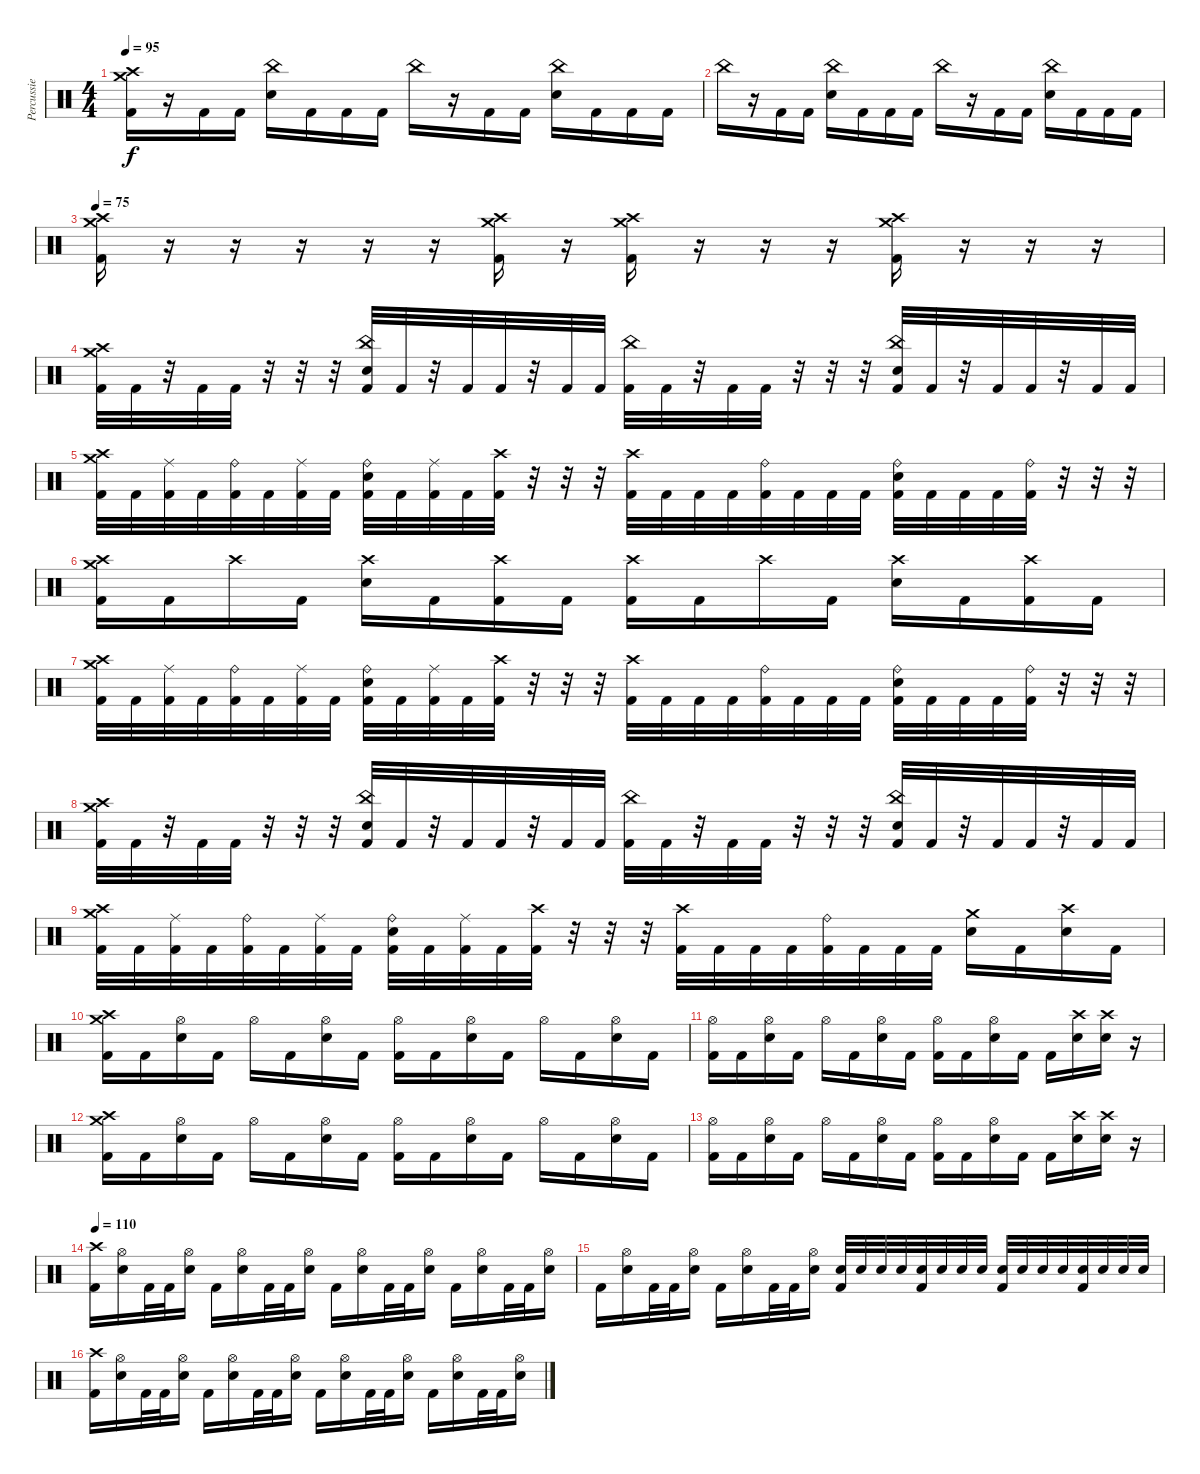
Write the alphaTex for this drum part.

\track ("Percussie" "Percussie") {instrument percussion}
\staff {score}
\articulation defaults
\ts (4 4)
\tempo 95
\clef neutral
\ks c
("Crash medium (hit)" "Crash high (hit)" "Kick (hit) 2").16{dy f} r.16 "Kick (hit) 2".16 "Kick (hit) 2".16 ("China (hit)" "Electric Snare (hit)").16 "Kick (hit) 2".16 "Kick (hit) 2".16 "Kick (hit) 2".16 "China (hit)".16 r.16 "Kick (hit) 2".16 "Kick (hit) 2".16 ("China (hit)" "Electric Snare (hit)").16 "Kick (hit) 2".16 "Kick (hit) 2".16 "Kick (hit) 2".16 |
"China (hit)".16 r.16 "Kick (hit) 2".16 "Kick (hit) 2".16 ("China (hit)" "Electric Snare (hit)").16 "Kick (hit) 2".16 "Kick (hit) 2".16 "Kick (hit) 2".16 "China (hit)".16 r.16 "Kick (hit) 2".16 "Kick (hit) 2".16 ("China (hit)" "Electric Snare (hit)").16 "Kick (hit) 2".16 "Kick (hit) 2".16 "Kick (hit) 2".16 |
\tempo 75
("Crash medium (hit)" "Crash high (hit)" "Kick (hit) 2").16 r.16{volume 0} r.16 r.16 r.16 r.16 ("Crash high (hit)" "Crash medium (hit)" "Kick (hit) 2").16{volume 13} r.16 ("Crash medium (hit)" "Crash high (hit)" "Kick (hit) 2").16 r.16{volume 0} r.16 r.16 ("Crash medium (hit)" "Crash high (hit)" "Kick (hit) 2").16{volume 13} r.16{volume 0} r.16 r.16 |
("Crash medium (hit)" "Crash high (hit)" "Kick (hit) 2").32{volume 13} "Kick (hit) 2".32 r.32 "Kick (hit) 2".32 "Kick (hit) 2".32 r.32 r.32 r.32 ("China (hit)" "Electric Snare (hit)" "Kick (hit) 2").32 "Kick (hit) 2".32 r.32 "Kick (hit) 2".32 "Kick (hit) 2".32 r.32 "Kick (hit) 2".32 "Kick (hit) 2".32 ("China (hit)" "Kick (hit) 2").32 "Kick (hit) 2".32 r.32 "Kick (hit) 2".32 "Kick (hit) 2".32 r.32 r.32 r.32 ("China (hit)" "Electric Snare (hit)" "Kick (hit) 2").32 "Kick (hit) 2".32 r.32 "Kick (hit) 2".32 "Kick (hit) 2".32 r.32 "Kick (hit) 2".32 "Kick (hit) 2".32 |
("Crash medium (hit)" "Crash high (hit)" "Kick (hit) 2").32 "Kick (hit) 2".32 ("Ride (middle)" "Kick (hit) 2").32 "Kick (hit) 2".32 ("Ride (bell)" "Kick (hit) 2").32 "Kick (hit) 2".32 ("Ride (middle)" "Kick (hit) 2").32 "Kick (hit) 2".32 ("Ride (bell)" "Electric Snare (hit)" "Kick (hit) 2").32 "Kick (hit) 2".32 ("Ride (middle)" "Kick (hit) 2").32 "Kick (hit) 2".32 ("Crash high (hit)" "Kick (hit) 2").32 r.32 r.32 r.32 ("Crash high (hit)" "Kick (hit) 2").32 "Kick (hit) 2".32 "Kick (hit) 2".32 "Kick (hit) 2".32 ("Ride (bell)" "Kick (hit) 2").32 "Kick (hit) 2".32 "Kick (hit) 2".32 "Kick (hit) 2".32 ("Ride (bell)" "Electric Snare (hit)" "Kick (hit) 2").32 "Kick (hit) 2".32 "Kick (hit) 2".32 "Kick (hit) 2".32 ("Ride (bell)" "Kick (hit) 2").32 r.32 r.32 r.32 |
("Crash medium (hit)" "Crash high (hit)" "Kick (hit) 2").16 "Kick (hit) 2".16 "Crash high (hit)".16 "Kick (hit) 2".16 ("Crash high (hit)" "Electric Snare (hit)").16 "Kick (hit) 2".16 ("Crash high (hit)" "Kick (hit) 2").16 "Kick (hit) 2".16 ("Crash high (hit)" "Kick (hit) 2").16 "Kick (hit) 2".16 "Crash high (hit)".16 "Kick (hit) 2".16 ("Crash high (hit)" "Electric Snare (hit)").16 "Kick (hit) 2".16 ("Crash high (hit)" "Kick (hit) 2").16 "Kick (hit) 2".16 |
("Crash medium (hit)" "Crash high (hit)" "Kick (hit) 2").32 "Kick (hit) 2".32 ("Ride (middle)" "Kick (hit) 2").32 "Kick (hit) 2".32 ("Ride (bell)" "Kick (hit) 2").32 "Kick (hit) 2".32 ("Ride (middle)" "Kick (hit) 2").32 "Kick (hit) 2".32 ("Ride (bell)" "Electric Snare (hit)" "Kick (hit) 2").32 "Kick (hit) 2".32 ("Ride (middle)" "Kick (hit) 2").32 "Kick (hit) 2".32 ("Crash high (hit)" "Kick (hit) 2").32 r.32 r.32 r.32 ("Crash high (hit)" "Kick (hit) 2").32 "Kick (hit) 2".32 "Kick (hit) 2".32 "Kick (hit) 2".32 ("Ride (bell)" "Kick (hit) 2").32 "Kick (hit) 2".32 "Kick (hit) 2".32 "Kick (hit) 2".32 ("Ride (bell)" "Electric Snare (hit)" "Kick (hit) 2").32 "Kick (hit) 2".32 "Kick (hit) 2".32 "Kick (hit) 2".32 ("Ride (bell)" "Kick (hit) 2").32 r.32 r.32 r.32 |
("Crash medium (hit)" "Crash high (hit)" "Kick (hit) 2").32{volume 13} "Kick (hit) 2".32 r.32 "Kick (hit) 2".32 "Kick (hit) 2".32 r.32 r.32 r.32 ("China (hit)" "Electric Snare (hit)" "Kick (hit) 2").32 "Kick (hit) 2".32 r.32 "Kick (hit) 2".32 "Kick (hit) 2".32 r.32 "Kick (hit) 2".32 "Kick (hit) 2".32 ("China (hit)" "Kick (hit) 2").32 "Kick (hit) 2".32 r.32 "Kick (hit) 2".32 "Kick (hit) 2".32 r.32 r.32 r.32 ("China (hit)" "Electric Snare (hit)" "Kick (hit) 2").32 "Kick (hit) 2".32 r.32 "Kick (hit) 2".32 "Kick (hit) 2".32 r.32 "Kick (hit) 2".32 "Kick (hit) 2".32 |
("Crash medium (hit)" "Crash high (hit)" "Kick (hit) 2").32 "Kick (hit) 2".32 ("Ride (middle)" "Kick (hit) 2").32 "Kick (hit) 2".32 ("Ride (bell)" "Kick (hit) 2").32 "Kick (hit) 2".32 ("Ride (middle)" "Kick (hit) 2").32 "Kick (hit) 2".32 ("Ride (bell)" "Electric Snare (hit)" "Kick (hit) 2").32 "Kick (hit) 2".32 ("Ride (middle)" "Kick (hit) 2").32 "Kick (hit) 2".32 ("Crash high (hit)" "Kick (hit) 2").32 r.32 r.32 r.32 ("Crash high (hit)" "Kick (hit) 2").32 "Kick (hit) 2".32 "Kick (hit) 2".32 "Kick (hit) 2".32 ("Ride (bell)" "Kick (hit) 2").32 "Kick (hit) 2".32 "Kick (hit) 2".32 "Kick (hit) 2".32 ("Crash medium (hit)" "Electric Snare (hit)").16 "Kick (hit) 2".16 ("Crash high (hit)" "Electric Snare (hit)").16 "Kick (hit) 2".16 |
("Crash medium (hit)" "Crash high (hit)" "Kick (hit) 2").16 "Kick (hit) 2".16 ("Hi-Hat (open)" "Electric Snare (hit)").16 "Kick (hit) 2".16 "Hi-Hat (open)".16 "Kick (hit) 2".16 ("Hi-Hat (open)" "Electric Snare (hit)").16 "Kick (hit) 2".16 ("Hi-Hat (open)" "Kick (hit) 2").16 "Kick (hit) 2".16 ("Hi-Hat (open)" "Electric Snare (hit)").16 "Kick (hit) 2".16 "Hi-Hat (open)".16 "Kick (hit) 2".16 ("Hi-Hat (open)" "Electric Snare (hit)").16 "Kick (hit) 2".16 |
("Hi-Hat (open)" "Kick (hit) 2").16 "Kick (hit) 2".16 ("Hi-Hat (open)" "Electric Snare (hit)").16 "Kick (hit) 2".16 "Hi-Hat (open)".16 "Kick (hit) 2".16 ("Hi-Hat (open)" "Electric Snare (hit)").16 "Kick (hit) 2".16 ("Hi-Hat (open)" "Kick (hit) 2").16 "Kick (hit) 2".16 ("Hi-Hat (open)" "Electric Snare (hit)").16 "Kick (hit) 2".16 "Kick (hit) 2".16 ("Crash high (hit)" "Electric Snare (hit)").16 ("Crash high (hit)" "Electric Snare (hit)").16 r.16 |
("Crash medium (hit)" "Crash high (hit)" "Kick (hit) 2").16 "Kick (hit) 2".16 ("Hi-Hat (open)" "Electric Snare (hit)").16 "Kick (hit) 2".16 "Hi-Hat (open)".16 "Kick (hit) 2".16 ("Hi-Hat (open)" "Electric Snare (hit)").16 "Kick (hit) 2".16 ("Hi-Hat (open)" "Kick (hit) 2").16 "Kick (hit) 2".16 ("Hi-Hat (open)" "Electric Snare (hit)").16 "Kick (hit) 2".16 "Hi-Hat (open)".16 "Kick (hit) 2".16 ("Hi-Hat (open)" "Electric Snare (hit)").16 "Kick (hit) 2".16 |
("Hi-Hat (open)" "Kick (hit) 2").16 "Kick (hit) 2".16 ("Hi-Hat (open)" "Electric Snare (hit)").16 "Kick (hit) 2".16 "Hi-Hat (open)".16 "Kick (hit) 2".16 ("Hi-Hat (open)" "Electric Snare (hit)").16 "Kick (hit) 2".16 ("Hi-Hat (open)" "Kick (hit) 2").16 "Kick (hit) 2".16 ("Hi-Hat (open)" "Electric Snare (hit)").16 "Kick (hit) 2".16 "Kick (hit) 2".16 ("Crash high (hit)" "Electric Snare (hit)").16 ("Crash high (hit)" "Electric Snare (hit)").16 r.16 |
\tempo 110
("Crash high (hit)" "Kick (hit) 2").16 ("Hi-Hat (open)" "Electric Snare (hit)").16 "Kick (hit) 2".32 "Kick (hit) 2".32 ("Hi-Hat (open)" "Electric Snare (hit)").16 "Kick (hit) 2".16 ("Hi-Hat (open)" "Electric Snare (hit)").16 "Kick (hit) 2".32 "Kick (hit) 2".32 ("Hi-Hat (open)" "Electric Snare (hit)").16 "Kick (hit) 2".16 ("Hi-Hat (open)" "Electric Snare (hit)").16 "Kick (hit) 2".32 "Kick (hit) 2".32 ("Hi-Hat (open)" "Electric Snare (hit)").16 "Kick (hit) 2".16 ("Hi-Hat (open)" "Electric Snare (hit)").16 "Kick (hit) 2".32 "Kick (hit) 2".32 ("Hi-Hat (open)" "Electric Snare (hit)").16 |
"Kick (hit) 2".16 ("Hi-Hat (open)" "Electric Snare (hit)").16 "Kick (hit) 2".32 "Kick (hit) 2".32 ("Hi-Hat (open)" "Electric Snare (hit)").16 "Kick (hit) 2".16 ("Hi-Hat (open)" "Electric Snare (hit)").16 "Kick (hit) 2".32 "Kick (hit) 2".32 ("Hi-Hat (open)" "Electric Snare (hit)").16 ("Electric Snare (hit)" "Kick (hit) 2").32 "Electric Snare (hit)".32 "Electric Snare (hit)".32 "Electric Snare (hit)".32 ("Electric Snare (hit)" "Kick (hit) 2").32 "Electric Snare (hit)".32 "Electric Snare (hit)".32 "Electric Snare (hit)".32 ("Electric Snare (hit)" "Kick (hit) 2").32 "Electric Snare (hit)".32 "Electric Snare (hit)".32 "Electric Snare (hit)".32 ("Electric Snare (hit)" "Kick (hit) 2").32 "Electric Snare (hit)".32 "Electric Snare (hit)".32 "Electric Snare (hit)".32 |
("Crash high (hit)" "Kick (hit) 2").16 ("Hi-Hat (open)" "Electric Snare (hit)").16 "Kick (hit) 2".32 "Kick (hit) 2".32 ("Hi-Hat (open)" "Electric Snare (hit)").16 "Kick (hit) 2".16 ("Hi-Hat (open)" "Electric Snare (hit)").16 "Kick (hit) 2".32 "Kick (hit) 2".32 ("Hi-Hat (open)" "Electric Snare (hit)").16 "Kick (hit) 2".16 ("Hi-Hat (open)" "Electric Snare (hit)").16 "Kick (hit) 2".32 "Kick (hit) 2".32 ("Hi-Hat (open)" "Electric Snare (hit)").16 "Kick (hit) 2".16 ("Hi-Hat (open)" "Electric Snare (hit)").16 "Kick (hit) 2".32 "Kick (hit) 2".32 ("Hi-Hat (open)" "Electric Snare (hit)").16
